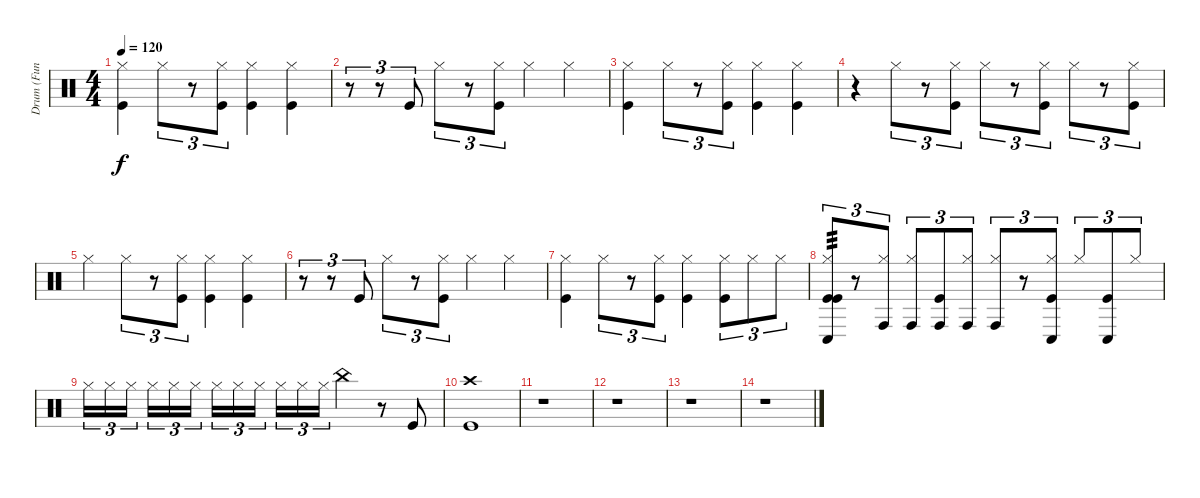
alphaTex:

\track ("Drum (Fun Track)" "Drum (Fun ") {instrument percussion}
\staff {score}
\articulation defaults
\ts (4 4)
\tempo 120
\clef neutral
\ks c
("Hi-Hat (closed)" "Kick (hit)").4{dy f} "Hi-Hat (closed)".8{tu (3 2)} r.8{tu (3 2)} ("Hi-Hat (closed)" "Kick (hit)").8{tu (3 2)} ("Hi-Hat (closed)" "Kick (hit)").4 ("Hi-Hat (closed)" "Kick (hit)").4 |
r.8{tu (3 2)} r.8{tu (3 2)} "Kick (hit)".8{tu (3 2)} "Hi-Hat (closed)".8{tu (3 2)} r.8{tu (3 2)} ("Hi-Hat (closed)" "Kick (hit)").8{tu (3 2)} "Hi-Hat (closed)".4 "Hi-Hat (closed)".4 |
("Hi-Hat (closed)" "Kick (hit)").4 "Hi-Hat (closed)".8{tu (3 2)} r.8{tu (3 2)} ("Hi-Hat (closed)" "Kick (hit)").8{tu (3 2)} ("Hi-Hat (closed)" "Kick (hit)").4 ("Hi-Hat (closed)" "Kick (hit)").4 |
r.4 "Hi-Hat (closed)".8{tu (3 2)} r.8{tu (3 2)} ("Hi-Hat (closed)" "Kick (hit)").8{tu (3 2)} "Hi-Hat (closed)".8{tu (3 2)} r.8{tu (3 2)} ("Hi-Hat (closed)" "Kick (hit)").8{tu (3 2)} "Hi-Hat (closed)".8{tu (3 2)} r.8{tu (3 2)} ("Hi-Hat (closed)" "Kick (hit)").8{tu (3 2)} |
"Hi-Hat (closed)".4 "Hi-Hat (closed)".8{tu (3 2)} r.8{tu (3 2)} ("Hi-Hat (closed)" "Kick (hit)").8{tu (3 2)} ("Hi-Hat (closed)" "Kick (hit)").4 ("Hi-Hat (closed)" "Kick (hit)").4 |
r.8{tu (3 2)} r.8{tu (3 2)} "Kick (hit)".8{tu (3 2)} "Hi-Hat (closed)".8{tu (3 2)} r.8{tu (3 2)} ("Hi-Hat (closed)" "Kick (hit)").8{tu (3 2)} "Hi-Hat (closed)".4 "Hi-Hat (closed)".4 |
("Hi-Hat (closed)" "Kick (hit)").4 "Hi-Hat (closed)".8{tu (3 2)} r.8{tu (3 2)} ("Hi-Hat (closed)" "Kick (hit)").8{tu (3 2)} ("Hi-Hat (closed)" "Kick (hit)").4 ("Hi-Hat (closed)" "Kick (hit)").8{tu (3 2)} "Hi-Hat (closed)".8{tu (3 2)} "Hi-Hat (closed)".8{tu (3 2)} |
("Hi-Hat (closed)" "Conga low (hit)" "Kick (hit)" "Kick (hit)").8{tu (3 2) tp 3} r.8{tu (3 2)} ("Hi-Hat (closed)" "Conga high (hit)").8{tu (3 2)} ("Hi-Hat (closed)" "Conga high (hit)").8{tu (3 2)} ("Conga high (hit)" "Kick (hit)").8{tu (3 2)} ("Hi-Hat (closed)" "Conga high (hit)").8{tu (3 2)} ("Hi-Hat (closed)" "Conga high (hit)").8{tu (3 2)} r.8{tu (3 2)} ("Hi-Hat (closed)" "Kick (hit)" "Conga low (hit)").8{tu (3 2)} "Hi-Hat (closed)".8{tu (3 2)} ("Kick (hit)" "Conga low (hit)").8{tu (3 2)} "Hi-Hat (closed)".8{tu (3 2)} |
"Hi-Hat (closed)".16{tu (3 2)} "Hi-Hat (closed)".16{tu (3 2)} "Hi-Hat (closed)".16{tu (3 2)} "Hi-Hat (closed)".16{tu (3 2)} "Hi-Hat (closed)".16{tu (3 2)} "Hi-Hat (closed)".16{tu (3 2)} "Hi-Hat (closed)".16{tu (3 2)} "Hi-Hat (closed)".16{tu (3 2)} "Hi-Hat (closed)".16{tu (3 2)} "Hi-Hat (closed)".16{tu (3 2)} "Hi-Hat (closed)".16{tu (3 2)} "Hi-Hat (closed)".16{tu (3 2)} "China (hit)".4 r.8 "Kick (hit)".8 |
("Crash high (hit)" "Kick (hit)").1 |
r.1 |
r.1 |
r.1 |
r.1
